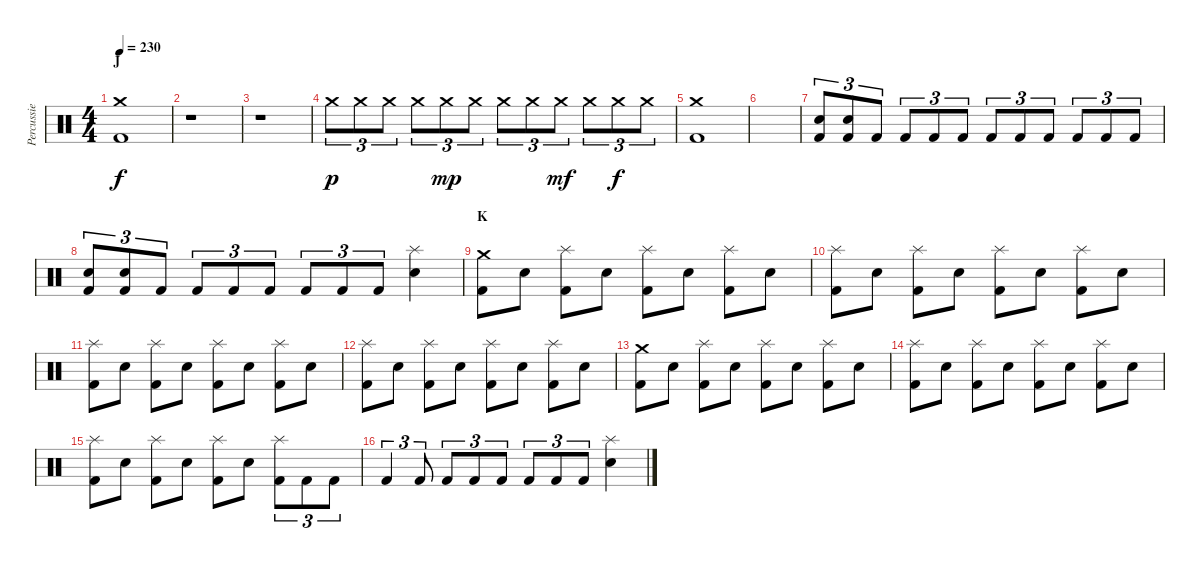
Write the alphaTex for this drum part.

\track ("Percussie" "Percussie") {instrument percussion}
\staff {score}
\articulation defaults
\ts (4 4)
\section ("" "J")
\tempo 230
\clef neutral
\ks c
("Crash medium (hit)" "Kick (hit) 2").1{dy f} |
r.1 |
r.1 |
"Crash medium (hit)".8{tu (3 2) dy p} "Crash medium (hit)".8{tu (3 2)} "Crash medium (hit)".8{tu (3 2)} "Crash medium (hit)".8{tu (3 2)} "Crash medium (hit)".8{tu (3 2) dy mp} "Crash medium (hit)".8{tu (3 2)} "Crash medium (hit)".8{tu (3 2)} "Crash medium (hit)".8{tu (3 2)} "Crash medium (hit)".8{tu (3 2) dy mf} "Crash medium (hit)".8{tu (3 2)} "Crash medium (hit)".8{tu (3 2) dy f} "Crash medium (hit)".8{tu (3 2)} |
("Crash medium (hit)" "Kick (hit) 2").1 |
|
("Electric Snare (hit)" "Kick (hit) 2").8{tu (3 2)} ("Electric Snare (hit)" "Kick (hit) 2").8{tu (3 2)} "Kick (hit) 2".8{tu (3 2)} "Kick (hit) 2".8{tu (3 2)} "Kick (hit) 2".8{tu (3 2)} "Kick (hit) 2".8{tu (3 2)} "Kick (hit) 2".8{tu (3 2)} "Kick (hit) 2".8{tu (3 2)} "Kick (hit) 2".8{tu (3 2)} "Kick (hit) 2".8{tu (3 2)} "Kick (hit) 2".8{tu (3 2)} "Kick (hit) 2".8{tu (3 2)} |
("Electric Snare (hit)" "Kick (hit) 2").8{tu (3 2)} ("Electric Snare (hit)" "Kick (hit) 2").8{tu (3 2)} "Kick (hit) 2".8{tu (3 2)} "Kick (hit) 2".8{tu (3 2)} "Kick (hit) 2".8{tu (3 2)} "Kick (hit) 2".8{tu (3 2)} "Kick (hit) 2".8{tu (3 2)} "Kick (hit) 2".8{tu (3 2)} "Kick (hit) 2".8{tu (3 2)} ("Splash (hit)" "Electric Snare (hit)").4 |
\section ("" "K")
("Crash medium (hit)" "Kick (hit) 2").8 "Electric Snare (hit)".8 ("Splash (hit)" "Kick (hit) 2").8 "Electric Snare (hit)".8 ("Splash (hit)" "Kick (hit) 2").8 "Electric Snare (hit)".8 ("Splash (hit)" "Kick (hit) 2").8 "Electric Snare (hit)".8 |
("Splash (hit)" "Kick (hit) 2").8 "Electric Snare (hit)".8 ("Splash (hit)" "Kick (hit) 2").8 "Electric Snare (hit)".8 ("Splash (hit)" "Kick (hit) 2").8 "Electric Snare (hit)".8 ("Splash (hit)" "Kick (hit) 2").8 "Electric Snare (hit)".8 |
("Splash (hit)" "Kick (hit) 2").8 "Electric Snare (hit)".8 ("Splash (hit)" "Kick (hit) 2").8 "Electric Snare (hit)".8 ("Splash (hit)" "Kick (hit) 2").8 "Electric Snare (hit)".8 ("Splash (hit)" "Kick (hit) 2").8 "Electric Snare (hit)".8 |
("Splash (hit)" "Kick (hit) 2").8 "Electric Snare (hit)".8 ("Splash (hit)" "Kick (hit) 2").8 "Electric Snare (hit)".8 ("Splash (hit)" "Kick (hit) 2").8 "Electric Snare (hit)".8 ("Splash (hit)" "Kick (hit) 2").8 "Electric Snare (hit)".8 |
("Crash medium (hit)" "Kick (hit) 2").8 "Electric Snare (hit)".8 ("Splash (hit)" "Kick (hit) 2").8 "Electric Snare (hit)".8 ("Splash (hit)" "Kick (hit) 2").8 "Electric Snare (hit)".8 ("Splash (hit)" "Kick (hit) 2").8 "Electric Snare (hit)".8 |
("Splash (hit)" "Kick (hit) 2").8 "Electric Snare (hit)".8 ("Splash (hit)" "Kick (hit) 2").8 "Electric Snare (hit)".8 ("Splash (hit)" "Kick (hit) 2").8 "Electric Snare (hit)".8 ("Splash (hit)" "Kick (hit) 2").8 "Electric Snare (hit)".8 |
("Splash (hit)" "Kick (hit) 2").8 "Electric Snare (hit)".8 ("Splash (hit)" "Kick (hit) 2").8 "Electric Snare (hit)".8 ("Splash (hit)" "Kick (hit) 2").8 "Electric Snare (hit)".8 ("Splash (hit)" "Kick (hit) 2").8{tu (3 2)} "Kick (hit) 2".8{tu (3 2)} "Kick (hit) 2".8{tu (3 2)} |
"Kick (hit) 2".4{tu (3 2)} "Kick (hit) 2".8{tu (3 2)} "Kick (hit) 2".8{tu (3 2)} "Kick (hit) 2".8{tu (3 2)} "Kick (hit) 2".8{tu (3 2)} "Kick (hit) 2".8{tu (3 2)} "Kick (hit) 2".8{tu (3 2)} "Kick (hit) 2".8{tu (3 2)} ("Splash (hit)" "Electric Snare (hit)").4
